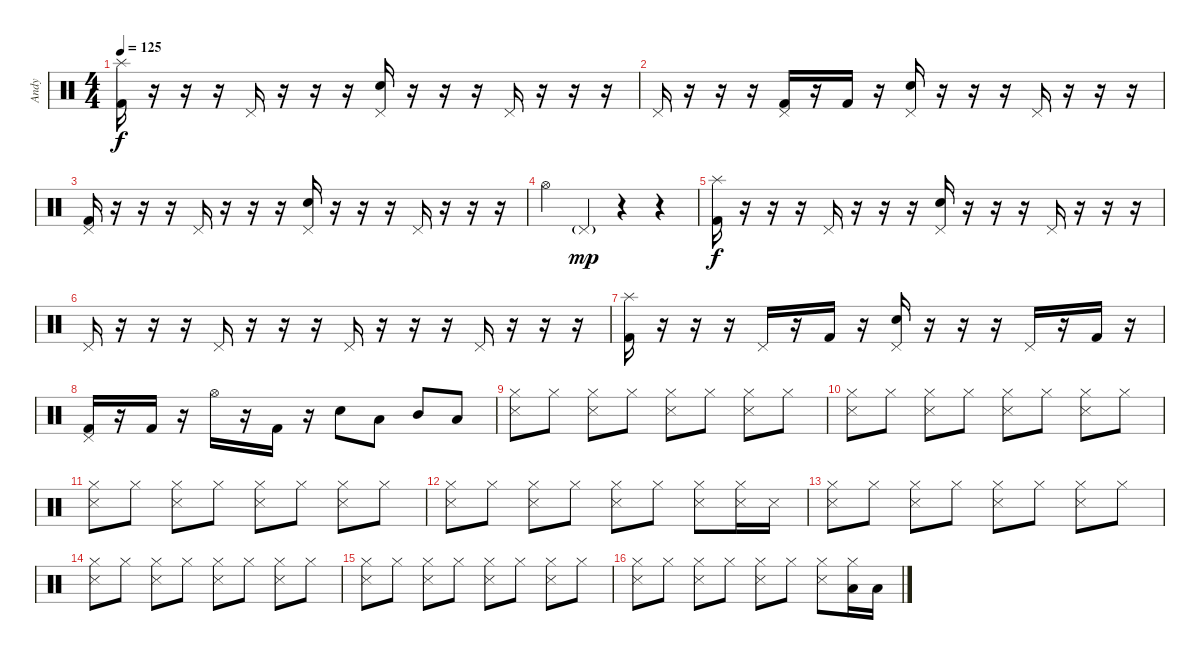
\track ("Andy" "Andy") {instrument percussion}
\staff {score}
\articulation defaults
\ts (4 4)
\tempo 125
\clef neutral
\ks c
("Splash (hit)" "Kick (hit) 2").16{dy f} r.16 r.16 r.16 "Pedal Hi-Hat (hit)".16 r.16 r.16 r.16 ("Pedal Hi-Hat (hit)" "Snare (hit) 2").16 r.16 r.16 r.16 "Pedal Hi-Hat (hit)".16 r.16 r.16 r.16 |
"Pedal Hi-Hat (hit)".16 r.16 r.16 r.16 ("Pedal Hi-Hat (hit)" "Kick (hit) 2").16 r.16 "Kick (hit) 2".16 r.16 ("Pedal Hi-Hat (hit)" "Snare (hit) 2").16 r.16 r.16 r.16 "Pedal Hi-Hat (hit)".16 r.16 r.16 r.16 |
("Pedal Hi-Hat (hit)" "Kick (hit) 2").16 r.16 r.16 r.16 "Pedal Hi-Hat (hit)".16 r.16 r.16 r.16 ("Pedal Hi-Hat (hit)" "Snare (hit) 2").16 r.16 r.16 r.16 "Pedal Hi-Hat (hit)".16 r.16 r.16 r.16 |
"Hi-Hat (open)".4 "Pedal Hi-Hat (hit)"{g}.4{dy mp} r.4 r.4 |
("Splash (hit)" "Kick (hit) 2").16{dy f} r.16 r.16 r.16 "Pedal Hi-Hat (hit)".16 r.16 r.16 r.16 ("Pedal Hi-Hat (hit)" "Snare (hit) 2").16 r.16 r.16 r.16 "Pedal Hi-Hat (hit)".16 r.16 r.16 r.16 |
"Pedal Hi-Hat (hit)".16 r.16 r.16 r.16 "Pedal Hi-Hat (hit)".16 r.16 r.16 r.16 "Pedal Hi-Hat (hit)".16 r.16 r.16 r.16 "Pedal Hi-Hat (hit)".16 r.16 r.16 r.16 |
("Splash (hit)" "Kick (hit) 2").16 r.16 r.16 r.16 "Pedal Hi-Hat (hit)".16 r.16 "Kick (hit) 2".16 r.16 ("Pedal Hi-Hat (hit)" "Snare (hit) 2").16 r.16 r.16 r.16 "Pedal Hi-Hat (hit)".16 r.16 "Kick (hit) 2".16 r.16 |
("Pedal Hi-Hat (hit)" "Kick (hit) 2").16 r.16 "Kick (hit) 2".16 r.16 "Hi-Hat (open)".16 r.16 "Kick (hit) 2".16 r.16 "Snare (hit) 2".8 "Low Tom (hit)".8 "Mid Tom (hit)".8 "Low Floor Tom (hit)".8 |
("Hi-Hat (closed)" "Snare (side stick) 3").8 "Hi-Hat (closed)".8 ("Hi-Hat (closed)" "Snare (side stick) 3").8 "Hi-Hat (closed)".8 ("Hi-Hat (closed)" "Snare (side stick) 3").8 "Hi-Hat (closed)".8 ("Hi-Hat (closed)" "Snare (side stick) 3").8 "Hi-Hat (closed)".8 |
("Hi-Hat (closed)" "Snare (side stick) 3").8 "Hi-Hat (closed)".8 ("Hi-Hat (closed)" "Snare (side stick) 3").8 "Hi-Hat (closed)".8 ("Hi-Hat (closed)" "Snare (side stick) 3").8 "Hi-Hat (closed)".8 ("Hi-Hat (closed)" "Snare (side stick) 3").8 "Hi-Hat (closed)".8 |
("Hi-Hat (closed)" "Snare (side stick) 3").8 "Hi-Hat (closed)".8 ("Hi-Hat (closed)" "Snare (side stick) 3").8 "Hi-Hat (closed)".8 ("Hi-Hat (closed)" "Snare (side stick) 3").8 "Hi-Hat (closed)".8 ("Hi-Hat (closed)" "Snare (side stick) 3").8 "Hi-Hat (closed)".8 |
("Hi-Hat (closed)" "Snare (side stick) 3").8 "Hi-Hat (closed)".8 ("Hi-Hat (closed)" "Snare (side stick) 3").8 "Hi-Hat (closed)".8 ("Hi-Hat (closed)" "Snare (side stick) 3").8 "Hi-Hat (closed)".8 ("Hi-Hat (closed)" "Snare (side stick) 3").8 ("Hi-Hat (closed)" "Snare (side stick) 3").16 "Snare (side stick) 3".16 |
("Hi-Hat (closed)" "Snare (side stick) 3").8 "Hi-Hat (closed)".8 ("Hi-Hat (closed)" "Snare (side stick) 3").8 "Hi-Hat (closed)".8 ("Hi-Hat (closed)" "Snare (side stick) 3").8 "Hi-Hat (closed)".8 ("Hi-Hat (closed)" "Snare (side stick) 3").8 "Hi-Hat (closed)".8 |
("Hi-Hat (closed)" "Snare (side stick) 3").8 "Hi-Hat (closed)".8 ("Hi-Hat (closed)" "Snare (side stick) 3").8 "Hi-Hat (closed)".8 ("Hi-Hat (closed)" "Snare (side stick) 3").8 "Hi-Hat (closed)".8 ("Hi-Hat (closed)" "Snare (side stick) 3").8 "Hi-Hat (closed)".8 |
("Hi-Hat (closed)" "Snare (side stick) 3").8 "Hi-Hat (closed)".8 ("Hi-Hat (closed)" "Snare (side stick) 3").8 "Hi-Hat (closed)".8 ("Hi-Hat (closed)" "Snare (side stick) 3").8 "Hi-Hat (closed)".8 ("Hi-Hat (closed)" "Snare (side stick) 3").8 "Hi-Hat (closed)".8 |
("Hi-Hat (closed)" "Snare (side stick) 3").8 "Hi-Hat (closed)".8 ("Hi-Hat (closed)" "Snare (side stick) 3").8 "Hi-Hat (closed)".8 ("Hi-Hat (closed)" "Snare (side stick) 3").8 "Hi-Hat (closed)".8 ("Hi-Hat (closed)" "Snare (side stick) 3").8 ("Hi-Hat (closed)" "Low Tom (hit)").16 "Low Floor Tom (hit)".16
